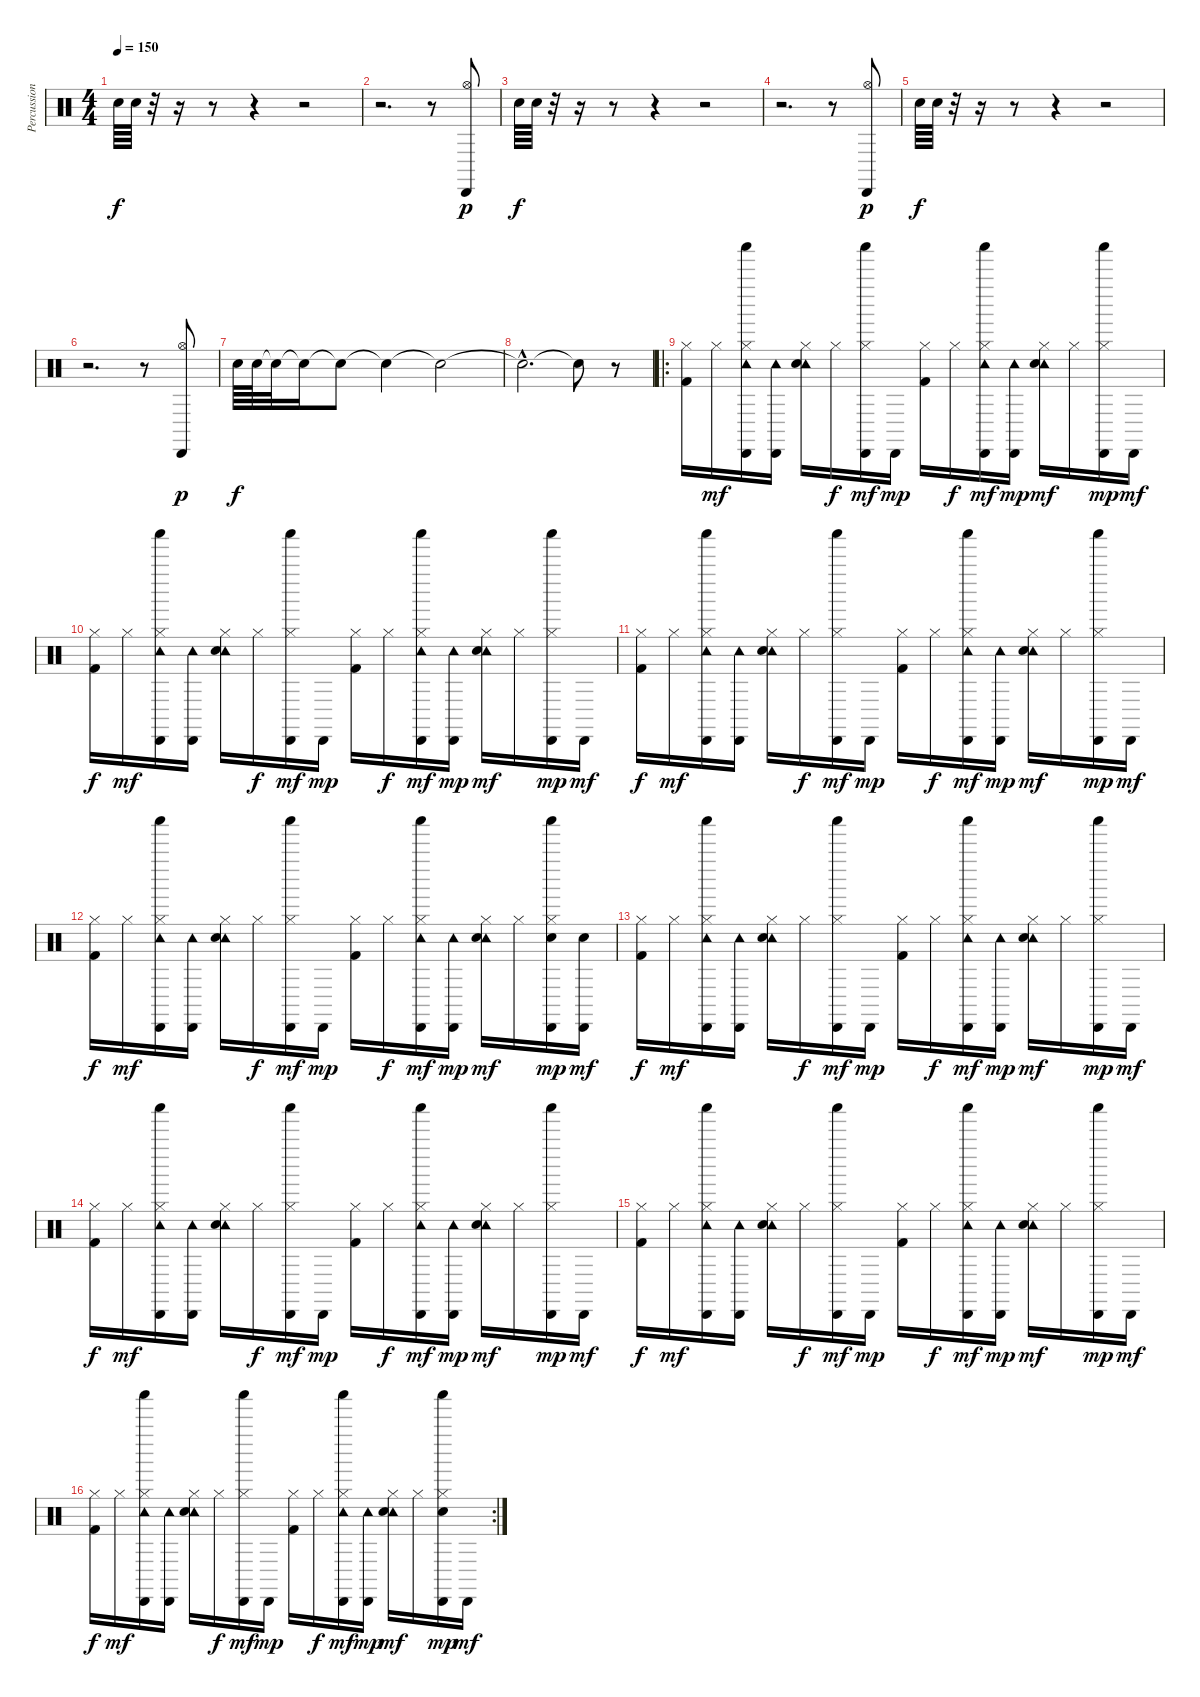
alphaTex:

\track ("Percussion" "Percussion") {instrument percussion}
\staff {score}
\articulation defaults
\ts (4 4)
\tempo 150
\clef neutral
\ks c "Electric Snare (hit)".64{dy f} "Electric Snare (hit)".64
r.32 r.16 r.8 r.4 r.2 |
r.2{d} r.8 ("Hi-Hat (open)" "Cabasa (hit)").8{dy p} |
"Electric Snare (hit)".64{dy f} "Electric Snare (hit)".64 r.32 r.16 r.8 r.4 r.2 |
r.2{d} r.8 ("Hi-Hat (open)" "Cabasa (hit)").8{dy p} |
"Electric Snare (hit)".64{dy f} "Electric Snare (hit)".64 r.32 r.16 r.8 r.4 r.2 |
r.2{d} r.8 ("Hi-Hat (open)" "Cabasa (hit)").8{dy p} |
"Electric Snare (hit)".64{dy f} "Electric Snare (hit)".64 "Snare (hit)"{t}.32 "Snare (hit)"{t}.16 "Snare (hit)"{t}.8 "Snare (hit)"{t}.4 "Snare (hit)"{t}.2 |
"Snare (hit)"{hac t}.2{d} "Snare (hit)"{t}.8 r.8 |
\ro
("Hi-Hat (closed)" "Kick (hit) 2").16 "Hi-Hat (closed)".16{dy mf} ("Hi-Hat (closed)" "Tambourine (hit)" "Cabasa (hit)" "Shaker (hit)").16 ("Tambourine (hit)" "Cabasa (hit)").16 ("Hi-Hat (closed)" "Tambourine (hit)" "Electric Snare (hit)").16 "Hi-Hat (closed)".16{dy f} ("Hi-Hat (closed)" "Cabasa (hit)" "Shaker (hit)").16{dy mf} "Cabasa (hit)".16{dy mp} ("Hi-Hat (closed)" "Kick (hit) 2").16 "Hi-Hat (closed)".16{dy f} ("Hi-Hat (closed)" "Tambourine (hit)" "Cabasa (hit)" "Shaker (hit)").16{dy mf} ("Tambourine (hit)" "Cabasa (hit)").16{dy mp} ("Hi-Hat (closed)" "Tambourine (hit)" "Electric Snare (hit)").16{dy mf} "Hi-Hat (closed)".16 ("Hi-Hat (closed)" "Cabasa (hit)" "Shaker (hit)").16{dy mp} "Cabasa (hit)".16{dy mf} |
("Hi-Hat (closed)" "Kick (hit) 2").16{dy f} "Hi-Hat (closed)".16{dy mf} ("Hi-Hat (closed)" "Tambourine (hit)" "Cabasa (hit)" "Shaker (hit)").16 ("Tambourine (hit)" "Cabasa (hit)").16 ("Hi-Hat (closed)" "Tambourine (hit)" "Electric Snare (hit)").16 "Hi-Hat (closed)".16{dy f} ("Hi-Hat (closed)" "Cabasa (hit)" "Shaker (hit)").16{dy mf} "Cabasa (hit)".16{dy mp} ("Hi-Hat (closed)" "Kick (hit) 2").16 "Hi-Hat (closed)".16{dy f} ("Hi-Hat (closed)" "Tambourine (hit)" "Cabasa (hit)" "Shaker (hit)").16{dy mf} ("Tambourine (hit)" "Cabasa (hit)").16{dy mp} ("Hi-Hat (closed)" "Tambourine (hit)" "Electric Snare (hit)").16{dy mf} "Hi-Hat (closed)".16 ("Hi-Hat (closed)" "Cabasa (hit)" "Shaker (hit)").16{dy mp} "Cabasa (hit)".16{dy mf} |
("Hi-Hat (closed)" "Kick (hit) 2").16{dy f} "Hi-Hat (closed)".16{dy mf} ("Hi-Hat (closed)" "Tambourine (hit)" "Cabasa (hit)" "Shaker (hit)").16 ("Tambourine (hit)" "Cabasa (hit)").16 ("Hi-Hat (closed)" "Tambourine (hit)" "Electric Snare (hit)").16 "Hi-Hat (closed)".16{dy f} ("Hi-Hat (closed)" "Cabasa (hit)" "Shaker (hit)").16{dy mf} "Cabasa (hit)".16{dy mp} ("Hi-Hat (closed)" "Kick (hit) 2").16 "Hi-Hat (closed)".16{dy f} ("Hi-Hat (closed)" "Tambourine (hit)" "Cabasa (hit)" "Shaker (hit)").16{dy mf} ("Tambourine (hit)" "Cabasa (hit)").16{dy mp} ("Hi-Hat (closed)" "Tambourine (hit)" "Electric Snare (hit)").16{dy mf} "Hi-Hat (closed)".16 ("Hi-Hat (closed)" "Cabasa (hit)" "Shaker (hit)").16{dy mp} "Cabasa (hit)".16{dy mf} |
("Hi-Hat (closed)" "Kick (hit) 2").16{dy f} "Hi-Hat (closed)".16{dy mf} ("Hi-Hat (closed)" "Tambourine (hit)" "Cabasa (hit)" "Shaker (hit)").16 ("Tambourine (hit)" "Cabasa (hit)").16 ("Hi-Hat (closed)" "Tambourine (hit)" "Electric Snare (hit)").16 "Hi-Hat (closed)".16{dy f} ("Hi-Hat (closed)" "Cabasa (hit)" "Shaker (hit)").16{dy mf} "Cabasa (hit)".16{dy mp} ("Hi-Hat (closed)" "Kick (hit) 2").16 "Hi-Hat (closed)".16{dy f} ("Hi-Hat (closed)" "Tambourine (hit)" "Cabasa (hit)" "Shaker (hit)").16{dy mf} ("Tambourine (hit)" "Cabasa (hit)").16{dy mp} ("Hi-Hat (closed)" "Tambourine (hit)" "Electric Snare (hit)").16{dy mf} "Hi-Hat (closed)".16 ("Hi-Hat (closed)" "Electric Snare (hit)" "Cabasa (hit)" "Shaker (hit)").16{dy mp} ("Electric Snare (hit)" "Cabasa (hit)").16{dy mf} |
("Hi-Hat (closed)" "Kick (hit) 2").16{dy f} "Hi-Hat (closed)".16{dy mf} ("Hi-Hat (closed)" "Tambourine (hit)" "Cabasa (hit)" "Shaker (hit)").16 ("Tambourine (hit)" "Cabasa (hit)").16 ("Hi-Hat (closed)" "Tambourine (hit)" "Electric Snare (hit)").16 "Hi-Hat (closed)".16{dy f} ("Hi-Hat (closed)" "Cabasa (hit)" "Shaker (hit)").16{dy mf} "Cabasa (hit)".16{dy mp} ("Hi-Hat (closed)" "Kick (hit) 2").16 "Hi-Hat (closed)".16{dy f} ("Hi-Hat (closed)" "Tambourine (hit)" "Cabasa (hit)" "Shaker (hit)").16{dy mf} ("Tambourine (hit)" "Cabasa (hit)").16{dy mp} ("Hi-Hat (closed)" "Tambourine (hit)" "Electric Snare (hit)").16{dy mf} "Hi-Hat (closed)".16 ("Hi-Hat (closed)" "Cabasa (hit)" "Shaker (hit)").16{dy mp} "Cabasa (hit)".16{dy mf} |
("Hi-Hat (closed)" "Kick (hit) 2").16{dy f} "Hi-Hat (closed)".16{dy mf} ("Hi-Hat (closed)" "Tambourine (hit)" "Cabasa (hit)" "Shaker (hit)").16 ("Tambourine (hit)" "Cabasa (hit)").16 ("Hi-Hat (closed)" "Tambourine (hit)" "Electric Snare (hit)").16 "Hi-Hat (closed)".16{dy f} ("Hi-Hat (closed)" "Cabasa (hit)" "Shaker (hit)").16{dy mf} "Cabasa (hit)".16{dy mp} ("Hi-Hat (closed)" "Kick (hit) 2").16 "Hi-Hat (closed)".16{dy f} ("Hi-Hat (closed)" "Tambourine (hit)" "Cabasa (hit)" "Shaker (hit)").16{dy mf} ("Tambourine (hit)" "Cabasa (hit)").16{dy mp} ("Hi-Hat (closed)" "Tambourine (hit)" "Electric Snare (hit)").16{dy mf} "Hi-Hat (closed)".16 ("Hi-Hat (closed)" "Cabasa (hit)" "Shaker (hit)").16{dy mp} "Cabasa (hit)".16{dy mf} |
("Hi-Hat (closed)" "Kick (hit) 2").16{dy f} "Hi-Hat (closed)".16{dy mf} ("Hi-Hat (closed)" "Tambourine (hit)" "Cabasa (hit)" "Shaker (hit)").16 ("Tambourine (hit)" "Cabasa (hit)").16 ("Hi-Hat (closed)" "Tambourine (hit)" "Electric Snare (hit)").16 "Hi-Hat (closed)".16{dy f} ("Hi-Hat (closed)" "Cabasa (hit)" "Shaker (hit)").16{dy mf} "Cabasa (hit)".16{dy mp} ("Hi-Hat (closed)" "Kick (hit) 2").16 "Hi-Hat (closed)".16{dy f} ("Hi-Hat (closed)" "Tambourine (hit)" "Cabasa (hit)" "Shaker (hit)").16{dy mf} ("Tambourine (hit)" "Cabasa (hit)").16{dy mp} ("Hi-Hat (closed)" "Tambourine (hit)" "Electric Snare (hit)").16{dy mf} "Hi-Hat (closed)".16 ("Hi-Hat (closed)" "Cabasa (hit)" "Shaker (hit)").16{dy mp} "Cabasa (hit)".16{dy mf} |
\rc 2
("Hi-Hat (closed)" "Kick (hit) 2").16{dy f} "Hi-Hat (closed)".16{dy mf} ("Hi-Hat (closed)" "Tambourine (hit)" "Cabasa (hit)" "Shaker (hit)").16 ("Tambourine (hit)" "Cabasa (hit)").16 ("Hi-Hat (closed)" "Tambourine (hit)" "Electric Snare (hit)").16 "Hi-Hat (closed)".16{dy f} ("Hi-Hat (closed)" "Cabasa (hit)" "Shaker (hit)").16{dy mf} "Cabasa (hit)".16{dy mp} ("Hi-Hat (closed)" "Kick (hit) 2").16 "Hi-Hat (closed)".16{dy f} ("Hi-Hat (closed)" "Tambourine (hit)" "Cabasa (hit)" "Shaker (hit)").16{dy mf} ("Tambourine (hit)" "Cabasa (hit)").16{dy mp} ("Hi-Hat (closed)" "Tambourine (hit)" "Electric Snare (hit)").16{dy mf} "Hi-Hat (closed)".16 ("Hi-Hat (closed)" "Electric Snare (hit)" "Cabasa (hit)" "Shaker (hit)").16{dy mp} "Cabasa (hit)".16{dy mf}
